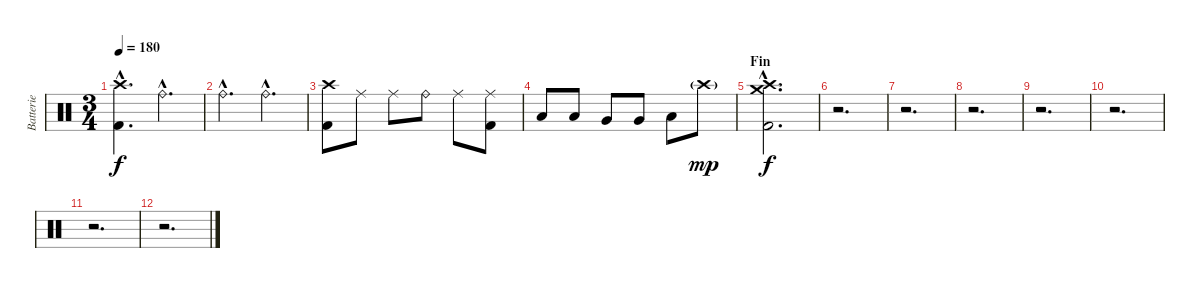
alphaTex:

\track ("Batterie" "Batterie") {instrument percussion}
\staff {score}
\articulation defaults
\ts (3 4)
\tempo 180
\clef neutral
\ks c
("Crash high (hit)"{hac} "Kick (hit) 2"{hac}).4{d dy f} "Ride (bell)"{hac}.4{d} |
"Ride (bell)"{hac}.4{d} "Ride (bell)"{hac}.4{d} |
("Crash high (hit)" "Kick (hit) 2").8 "Ride (middle)".8 "Ride (middle)".8 "Ride (bell)".8 "Ride (middle)".8 ("Ride (middle)" "Kick (hit) 2").8 |
"Low Tom (hit)".8 "Low Tom (hit)".8 "Very Low Tom (hit)".8 "Very Low Tom (hit)".8 "Low Floor Tom (hit)".8 "Crash high (hit)"{g}.8{dy mp} |
\section ("" "Fin")
("Crash medium (hit)"{hac} "Crash high (hit)"{hac} "Kick (hit) 2"{hac}).2{d dy f} |
r.2{d} |
r.2{d} |
r.2{d} |
r.2{d} |
r.2{d} |
r.2{d} |
r.2{d}
